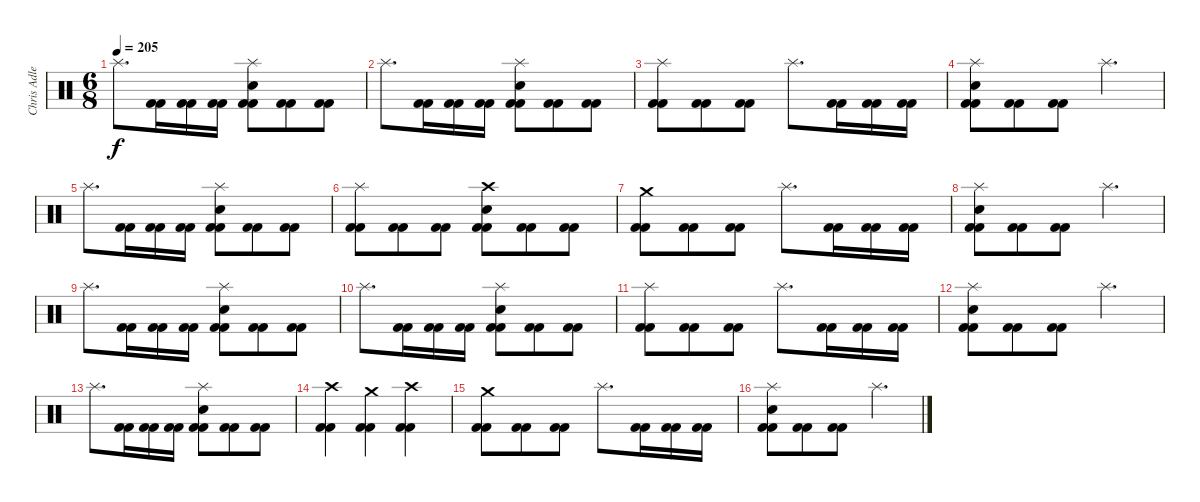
\track ("Chris Adler" "Chris Adle") {instrument percussion}
\staff {score}
\articulation defaults
\ts (6 8)
\tempo 205
\clef neutral
\ks c "Splash (hit)".8{d dy f}
("Kick (hit) 2" "Kick (hit) 2").16 ("Kick (hit) 2" "Kick (hit) 2").16 ("Kick (hit) 2" "Kick (hit) 2").16 ("Splash (hit)" "Electric Snare (hit)" "Kick (hit) 2" "Kick (hit) 2").8 ("Kick (hit) 2" "Kick (hit) 2").8 ("Kick (hit) 2" "Kick (hit) 2").8 |
"Splash (hit)".8{d} ("Kick (hit) 2" "Kick (hit) 2").16 ("Kick (hit) 2" "Kick (hit) 2").16 ("Kick (hit) 2" "Kick (hit) 2").16 ("Splash (hit)" "Electric Snare (hit)" "Kick (hit) 2" "Kick (hit) 2").8 ("Kick (hit) 2" "Kick (hit) 2").8 ("Kick (hit) 2" "Kick (hit) 2").8 |
("Splash (hit)" "Kick (hit) 2" "Kick (hit) 2").8 ("Kick (hit) 2" "Kick (hit) 2").8 ("Kick (hit) 2" "Kick (hit) 2").8 "Splash (hit)".8{d} ("Kick (hit) 2" "Kick (hit) 2").16 ("Kick (hit) 2" "Kick (hit) 2").16 ("Kick (hit) 2" "Kick (hit) 2").16 |
("Splash (hit)" "Electric Snare (hit)" "Kick (hit) 2" "Kick (hit) 2").8 ("Kick (hit) 2" "Kick (hit) 2").8 ("Kick (hit) 2" "Kick (hit) 2").8 "Splash (hit)".4{d} |
"Splash (hit)".8{d} ("Kick (hit) 2" "Kick (hit) 2").16 ("Kick (hit) 2" "Kick (hit) 2").16 ("Kick (hit) 2" "Kick (hit) 2").16 ("Splash (hit)" "Electric Snare (hit)" "Kick (hit) 2" "Kick (hit) 2").8 ("Kick (hit) 2" "Kick (hit) 2").8 ("Kick (hit) 2" "Kick (hit) 2").8 |
("Splash (hit)" "Kick (hit) 2" "Kick (hit) 2").8 ("Kick (hit) 2" "Kick (hit) 2").8 ("Kick (hit) 2" "Kick (hit) 2").8 ("Crash high (hit)" "Electric Snare (hit)" "Kick (hit) 2" "Kick (hit) 2").8 ("Kick (hit) 2" "Kick (hit) 2").8 ("Kick (hit) 2" "Kick (hit) 2").8 |
("Crash medium (hit)" "Kick (hit) 2" "Kick (hit) 2").8 ("Kick (hit) 2" "Kick (hit) 2").8 ("Kick (hit) 2" "Kick (hit) 2").8 "Splash (hit)".8{d} ("Kick (hit) 2" "Kick (hit) 2").16 ("Kick (hit) 2" "Kick (hit) 2").16 ("Kick (hit) 2" "Kick (hit) 2").16 |
("Splash (hit)" "Electric Snare (hit)" "Kick (hit) 2" "Kick (hit) 2").8 ("Kick (hit) 2" "Kick (hit) 2").8 ("Kick (hit) 2" "Kick (hit) 2").8 "Splash (hit)".4{d} |
"Splash (hit)".8{d} ("Kick (hit) 2" "Kick (hit) 2").16 ("Kick (hit) 2" "Kick (hit) 2").16 ("Kick (hit) 2" "Kick (hit) 2").16 ("Splash (hit)" "Electric Snare (hit)" "Kick (hit) 2" "Kick (hit) 2").8 ("Kick (hit) 2" "Kick (hit) 2").8 ("Kick (hit) 2" "Kick (hit) 2").8 |
"Splash (hit)".8{d} ("Kick (hit) 2" "Kick (hit) 2").16 ("Kick (hit) 2" "Kick (hit) 2").16 ("Kick (hit) 2" "Kick (hit) 2").16 ("Splash (hit)" "Electric Snare (hit)" "Kick (hit) 2" "Kick (hit) 2").8 ("Kick (hit) 2" "Kick (hit) 2").8 ("Kick (hit) 2" "Kick (hit) 2").8 |
("Splash (hit)" "Kick (hit) 2" "Kick (hit) 2").8 ("Kick (hit) 2" "Kick (hit) 2").8 ("Kick (hit) 2" "Kick (hit) 2").8 "Splash (hit)".8{d} ("Kick (hit) 2" "Kick (hit) 2").16 ("Kick (hit) 2" "Kick (hit) 2").16 ("Kick (hit) 2" "Kick (hit) 2").16 |
("Splash (hit)" "Electric Snare (hit)" "Kick (hit) 2" "Kick (hit) 2").8 ("Kick (hit) 2" "Kick (hit) 2").8 ("Kick (hit) 2" "Kick (hit) 2").8 "Splash (hit)".4{d} |
"Splash (hit)".8{d} ("Kick (hit) 2" "Kick (hit) 2").16 ("Kick (hit) 2" "Kick (hit) 2").16 ("Kick (hit) 2" "Kick (hit) 2").16 ("Splash (hit)" "Electric Snare (hit)" "Kick (hit) 2" "Kick (hit) 2").8 ("Kick (hit) 2" "Kick (hit) 2").8 ("Kick (hit) 2" "Kick (hit) 2").8 |
("Crash high (hit)" "Kick (hit) 2" "Kick (hit) 2").4 ("Crash medium (hit)" "Kick (hit) 2" "Kick (hit) 2").4 ("Crash high (hit)" "Kick (hit) 2" "Kick (hit) 2").4 |
("Crash medium (hit)" "Kick (hit) 2" "Kick (hit) 2").8 ("Kick (hit) 2" "Kick (hit) 2").8 ("Kick (hit) 2" "Kick (hit) 2").8 "Splash (hit)".8{d} ("Kick (hit) 2" "Kick (hit) 2").16 ("Kick (hit) 2" "Kick (hit) 2").16 ("Kick (hit) 2" "Kick (hit) 2").16 |
("Splash (hit)" "Electric Snare (hit)" "Kick (hit) 2" "Kick (hit) 2").8 ("Kick (hit) 2" "Kick (hit) 2").8 ("Kick (hit) 2" "Kick (hit) 2").8 "Splash (hit)".4{d}
